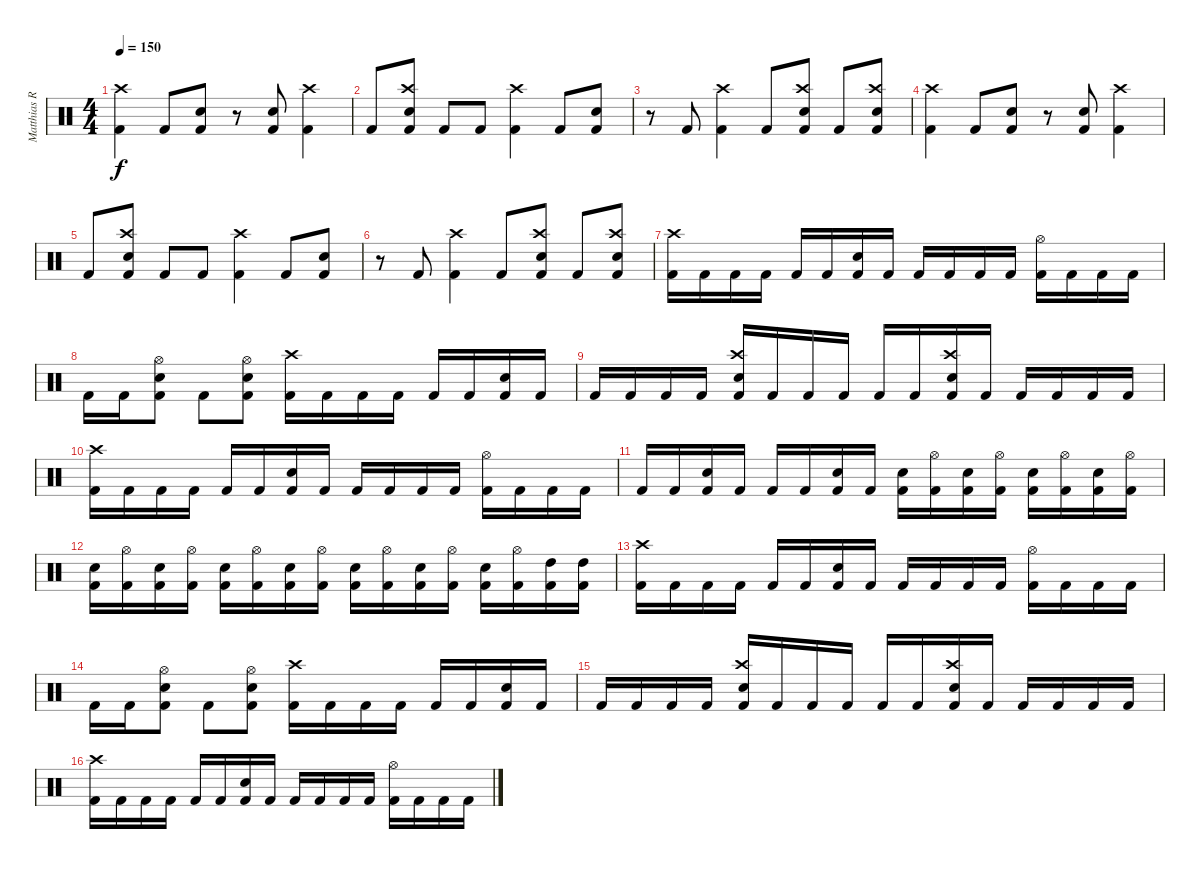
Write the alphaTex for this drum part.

\track ("Matthias Rodig" "Matthias R") {instrument percussion}
\staff {score}
\articulation defaults
\ts (4 4)
\tempo 150
\clef neutral
\ks c
("Kick (hit) 2" "Crash high (hit)").4{dy f} "Kick (hit) 2".8 ("Kick (hit) 2" "Snare (hit) 2").8 r.8 ("Kick (hit) 2" "Snare (hit) 2").8 ("Kick (hit) 2" "Crash high (hit)").4 |
"Kick (hit) 2".8 ("Kick (hit) 2" "Snare (hit) 2" "Crash high (hit)").8 "Kick (hit) 2".8 "Kick (hit) 2".8 ("Kick (hit) 2" "Crash high (hit)").4 "Kick (hit) 2".8 ("Kick (hit) 2" "Snare (hit) 2").8 |
r.8 "Kick (hit) 2".8 ("Kick (hit) 2" "Crash high (hit)").4 "Kick (hit) 2".8 ("Kick (hit) 2" "Snare (hit) 2" "Crash high (hit)").8 "Kick (hit) 2".8 ("Kick (hit) 2" "Snare (hit) 2" "Crash high (hit)").8 |
("Kick (hit) 2" "Crash high (hit)").4 "Kick (hit) 2".8 ("Kick (hit) 2" "Snare (hit) 2").8 r.8 ("Kick (hit) 2" "Snare (hit) 2").8 ("Kick (hit) 2" "Crash high (hit)").4 |
"Kick (hit) 2".8 ("Kick (hit) 2" "Snare (hit) 2" "Crash high (hit)").8 "Kick (hit) 2".8 "Kick (hit) 2".8 ("Kick (hit) 2" "Crash high (hit)").4 "Kick (hit) 2".8 ("Kick (hit) 2" "Snare (hit) 2").8 |
r.8 "Kick (hit) 2".8 ("Kick (hit) 2" "Crash high (hit)").4 "Kick (hit) 2".8 ("Kick (hit) 2" "Snare (hit) 2" "Crash high (hit)").8 "Kick (hit) 2".8 ("Kick (hit) 2" "Snare (hit) 2" "Crash high (hit)").8 |
("Kick (hit) 2" "Crash high (hit)").16 "Kick (hit) 2".16 "Kick (hit) 2".16 "Kick (hit) 2".16 "Kick (hit) 2".16 "Kick (hit) 2".16 ("Kick (hit) 2" "Snare (hit) 2").16 "Kick (hit) 2".16 "Kick (hit) 2".16 "Kick (hit) 2".16 "Kick (hit) 2".16 "Kick (hit) 2".16 ("Kick (hit) 2" "Hi-Hat (open)").16 "Kick (hit) 2".16 "Kick (hit) 2".16 "Kick (hit) 2".16 |
"Kick (hit) 2".16 "Kick (hit) 2".16 ("Kick (hit) 2" "Snare (hit) 2" "Hi-Hat (open)").8 "Kick (hit) 2".8 ("Kick (hit) 2" "Snare (hit) 2" "Hi-Hat (open)").8 ("Kick (hit) 2" "Crash high (hit)").16 "Kick (hit) 2".16 "Kick (hit) 2".16 "Kick (hit) 2".16 "Kick (hit) 2".16 "Kick (hit) 2".16 ("Kick (hit) 2" "Snare (hit) 2").16 "Kick (hit) 2".16 |
"Kick (hit) 2".16 "Kick (hit) 2".16 "Kick (hit) 2".16 "Kick (hit) 2".16 ("Kick (hit) 2" "Snare (hit) 2" "Crash high (hit)").16 "Kick (hit) 2".16 "Kick (hit) 2".16 "Kick (hit) 2".16 "Kick (hit) 2".16 "Kick (hit) 2".16 ("Kick (hit) 2" "Snare (hit) 2" "Crash high (hit)").16 "Kick (hit) 2".16 "Kick (hit) 2".16 "Kick (hit) 2".16 "Kick (hit) 2".16 "Kick (hit) 2".16 |
("Kick (hit) 2" "Crash high (hit)").16 "Kick (hit) 2".16 "Kick (hit) 2".16 "Kick (hit) 2".16 "Kick (hit) 2".16 "Kick (hit) 2".16 ("Kick (hit) 2" "Snare (hit) 2").16 "Kick (hit) 2".16 "Kick (hit) 2".16 "Kick (hit) 2".16 "Kick (hit) 2".16 "Kick (hit) 2".16 ("Kick (hit) 2" "Hi-Hat (open)").16 "Kick (hit) 2".16 "Kick (hit) 2".16 "Kick (hit) 2".16 |
"Kick (hit) 2".16 "Kick (hit) 2".16 ("Kick (hit) 2" "Snare (hit) 2").16 "Kick (hit) 2".16 "Kick (hit) 2".16 "Kick (hit) 2".16 ("Kick (hit) 2" "Snare (hit) 2").16 "Kick (hit) 2".16 ("Kick (hit) 2" "Snare (hit) 2").16 ("Kick (hit) 2" "Hi-Hat (open)").16 ("Kick (hit) 2" "Snare (hit) 2").16 ("Kick (hit) 2" "Hi-Hat (open)").16 ("Kick (hit) 2" "Snare (hit) 2").16 ("Kick (hit) 2" "Hi-Hat (open)").16 ("Kick (hit) 2" "Snare (hit) 2").16 ("Kick (hit) 2" "Hi-Hat (open)").16 |
("Kick (hit) 2" "Snare (hit) 2").16 ("Kick (hit) 2" "Hi-Hat (open)").16 ("Kick (hit) 2" "Snare (hit) 2").16 ("Kick (hit) 2" "Hi-Hat (open)").16 ("Kick (hit) 2" "Snare (hit) 2").16 ("Kick (hit) 2" "Hi-Hat (open)").16 ("Kick (hit) 2" "Snare (hit) 2").16 ("Kick (hit) 2" "Hi-Hat (open)").16 ("Kick (hit) 2" "Snare (hit) 2").16 ("Kick (hit) 2" "Hi-Hat (open)").16 ("Kick (hit) 2" "Snare (hit) 2").16 ("Kick (hit) 2" "Hi-Hat (open)").16 ("Kick (hit) 2" "Snare (hit) 2").16 ("Kick (hit) 2" "Hi-Hat (open)").16 ("Kick (hit) 2" "High Tom (hit)").16 ("Kick (hit) 2" "High Tom (hit)").16 |
("Kick (hit) 2" "Crash high (hit)").16 "Kick (hit) 2".16 "Kick (hit) 2".16 "Kick (hit) 2".16 "Kick (hit) 2".16 "Kick (hit) 2".16 ("Kick (hit) 2" "Snare (hit) 2").16 "Kick (hit) 2".16 "Kick (hit) 2".16 "Kick (hit) 2".16 "Kick (hit) 2".16 "Kick (hit) 2".16 ("Kick (hit) 2" "Hi-Hat (open)").16 "Kick (hit) 2".16 "Kick (hit) 2".16 "Kick (hit) 2".16 |
"Kick (hit) 2".16 "Kick (hit) 2".16 ("Kick (hit) 2" "Snare (hit) 2" "Hi-Hat (open)").8 "Kick (hit) 2".8 ("Kick (hit) 2" "Snare (hit) 2" "Hi-Hat (open)").8 ("Kick (hit) 2" "Crash high (hit)").16 "Kick (hit) 2".16 "Kick (hit) 2".16 "Kick (hit) 2".16 "Kick (hit) 2".16 "Kick (hit) 2".16 ("Kick (hit) 2" "Snare (hit) 2").16 "Kick (hit) 2".16 |
"Kick (hit) 2".16 "Kick (hit) 2".16 "Kick (hit) 2".16 "Kick (hit) 2".16 ("Kick (hit) 2" "Snare (hit) 2" "Crash high (hit)").16 "Kick (hit) 2".16 "Kick (hit) 2".16 "Kick (hit) 2".16 "Kick (hit) 2".16 "Kick (hit) 2".16 ("Kick (hit) 2" "Snare (hit) 2" "Crash high (hit)").16 "Kick (hit) 2".16 "Kick (hit) 2".16 "Kick (hit) 2".16 "Kick (hit) 2".16 "Kick (hit) 2".16 |
("Kick (hit) 2" "Crash high (hit)").16 "Kick (hit) 2".16 "Kick (hit) 2".16 "Kick (hit) 2".16 "Kick (hit) 2".16 "Kick (hit) 2".16 ("Kick (hit) 2" "Snare (hit) 2").16 "Kick (hit) 2".16 "Kick (hit) 2".16 "Kick (hit) 2".16 "Kick (hit) 2".16 "Kick (hit) 2".16 ("Kick (hit) 2" "Hi-Hat (open)").16 "Kick (hit) 2".16 "Kick (hit) 2".16 "Kick (hit) 2".16
